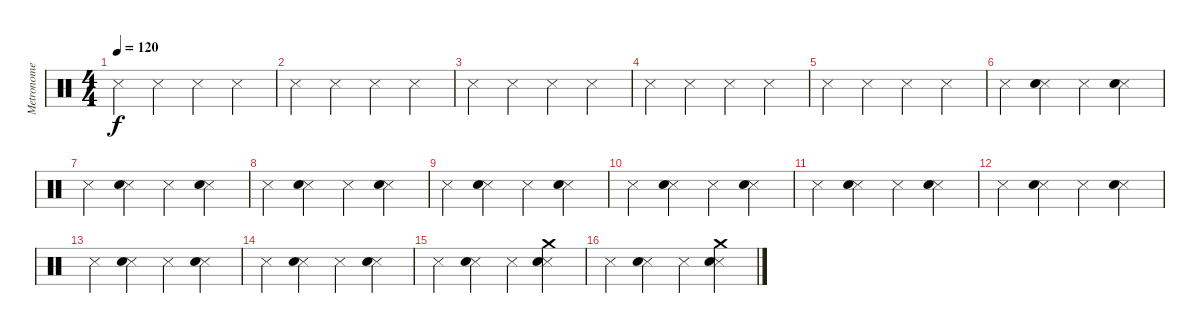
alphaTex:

\track ("Metronome" "Metronome") {instrument percussion}
\staff {score}
\articulation defaults
\ts (4 4)
\tempo 120
\clef neutral
\ks c "Snare (side stick) 3".4{dy f} "Snare (side stick) 3".4 "Snare (side stick) 3".4 "Snare (side stick) 3".4
|
"Snare (side stick) 3".4 "Snare (side stick) 3".4 "Snare (side stick) 3".4 "Snare (side stick) 3".4 |
"Snare (side stick) 3".4 "Snare (side stick) 3".4 "Snare (side stick) 3".4 "Snare (side stick) 3".4 |
"Snare (side stick) 3".4 "Snare (side stick) 3".4 "Snare (side stick) 3".4 "Snare (side stick) 3".4 |
"Snare (side stick) 3".4 "Snare (side stick) 3".4 "Snare (side stick) 3".4 "Snare (side stick) 3".4 |
"Snare (side stick) 3".4 ("Snare (side stick) 3" "Snare (hit) 2").4 "Snare (side stick) 3".4 ("Snare (side stick) 3" "Snare (hit) 2").4 |
"Snare (side stick) 3".4 ("Snare (side stick) 3" "Snare (hit) 2").4 "Snare (side stick) 3".4 ("Snare (side stick) 3" "Snare (hit) 2").4 |
"Snare (side stick) 3".4 ("Snare (side stick) 3" "Snare (hit) 2").4 "Snare (side stick) 3".4 ("Snare (side stick) 3" "Snare (hit) 2").4 |
"Snare (side stick) 3".4 ("Snare (side stick) 3" "Snare (hit) 2").4 "Snare (side stick) 3".4 ("Snare (side stick) 3" "Snare (hit) 2").4 |
"Snare (side stick) 3".4 ("Snare (side stick) 3" "Snare (hit) 2").4 "Snare (side stick) 3".4 ("Snare (side stick) 3" "Snare (hit) 2").4 |
"Snare (side stick) 3".4 ("Snare (side stick) 3" "Snare (hit) 2").4 "Snare (side stick) 3".4 ("Snare (side stick) 3" "Snare (hit) 2").4 |
"Snare (side stick) 3".4 ("Snare (side stick) 3" "Snare (hit) 2").4 "Snare (side stick) 3".4 ("Snare (side stick) 3" "Snare (hit) 2").4 |
"Snare (side stick) 3".4 ("Snare (side stick) 3" "Snare (hit) 2").4 "Snare (side stick) 3".4 ("Snare (side stick) 3" "Snare (hit) 2").4 |
"Snare (side stick) 3".4 ("Snare (side stick) 3" "Snare (hit) 2").4 "Snare (side stick) 3".4 ("Snare (side stick) 3" "Snare (hit) 2").4 |
"Snare (side stick) 3".4 ("Snare (side stick) 3" "Snare (hit) 2").4 "Snare (side stick) 3".4 ("Snare (side stick) 3" "Snare (hit) 2" "Crash medium (hit)").4 |
"Snare (side stick) 3".4 ("Snare (side stick) 3" "Snare (hit) 2").4 "Snare (side stick) 3".4 ("Snare (side stick) 3" "Snare (hit) 2" "Crash medium (hit)").4
